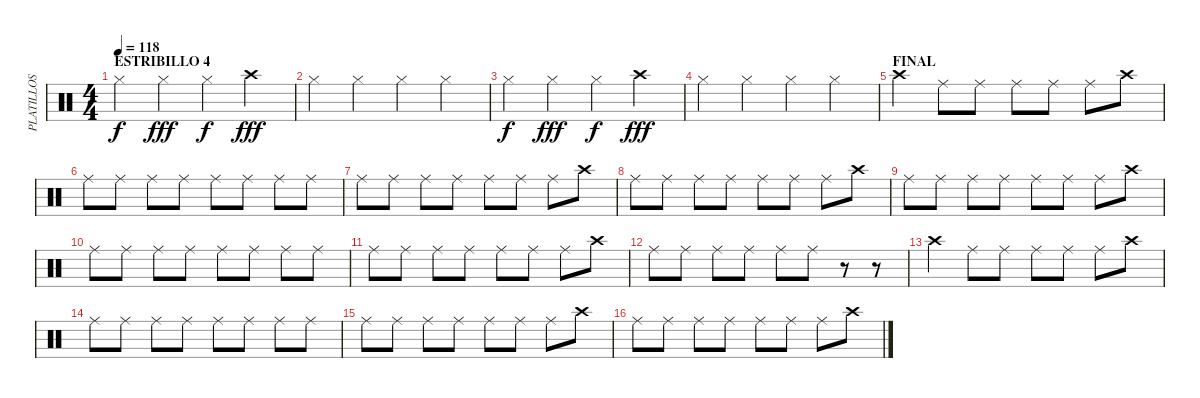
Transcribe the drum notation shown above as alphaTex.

\track ("PLATILLOS" "PLATILLOS") {instrument percussion}
\staff {score}
\articulation defaults
\ts (4 4)
\section ("" "ESTRIBILLO 4")
\tempo 118
\clef neutral
\ks c "Hi-Hat (closed)".4{dy f} "Hi-Hat (closed)".4{dy fff} "Hi-Hat (closed)".4{dy f} "Crash high (hit)".4{dy fff}
|
"Hi-Hat (closed)".4 "Hi-Hat (closed)".4 "Hi-Hat (closed)".4 "Hi-Hat (closed)".4 |
"Hi-Hat (closed)".4{dy f} "Hi-Hat (closed)".4{dy fff} "Hi-Hat (closed)".4{dy f} "Crash high (hit)".4{dy fff} |
"Hi-Hat (closed)".4 "Hi-Hat (closed)".4 "Hi-Hat (closed)".4 "Hi-Hat (closed)".4 |
\section ("" "FINAL")
"Crash high (hit)".4 "Ride (middle)".8 "Ride (middle)".8 "Ride (middle)".8 "Ride (middle)".8 "Ride (middle)".8 "Crash high (hit)".8 |
"Ride (middle)".8 "Ride (middle)".8 "Ride (middle)".8 "Ride (middle)".8 "Ride (middle)".8 "Ride (middle)".8 "Ride (middle)".8 "Ride (middle)".8 |
"Ride (middle)".8 "Ride (middle)".8 "Ride (middle)".8 "Ride (middle)".8 "Ride (middle)".8 "Ride (middle)".8 "Ride (middle)".8 "Crash high (hit)".8 |
"Ride (middle)".8 "Ride (middle)".8 "Ride (middle)".8 "Ride (middle)".8 "Ride (middle)".8 "Ride (middle)".8 "Ride (middle)".8 "Crash high (hit)".8 |
"Ride (middle)".8 "Ride (middle)".8 "Ride (middle)".8 "Ride (middle)".8 "Ride (middle)".8 "Ride (middle)".8 "Ride (middle)".8 "Crash high (hit)".8 |
"Ride (middle)".8 "Ride (middle)".8 "Ride (middle)".8 "Ride (middle)".8 "Ride (middle)".8 "Ride (middle)".8 "Ride (middle)".8 "Ride (middle)".8 |
"Ride (middle)".8 "Ride (middle)".8 "Ride (middle)".8 "Ride (middle)".8 "Ride (middle)".8 "Ride (middle)".8 "Ride (middle)".8 "Crash high (hit)".8 |
"Ride (middle)".8 "Ride (middle)".8 "Ride (middle)".8 "Ride (middle)".8 "Ride (middle)".8 "Ride (middle)".8 r.8 r.8 |
"Crash high (hit)".4 "Ride (middle)".8 "Ride (middle)".8 "Ride (middle)".8 "Ride (middle)".8 "Ride (middle)".8 "Crash high (hit)".8 |
"Ride (middle)".8 "Ride (middle)".8 "Ride (middle)".8 "Ride (middle)".8 "Ride (middle)".8 "Ride (middle)".8 "Ride (middle)".8 "Ride (middle)".8 |
"Ride (middle)".8 "Ride (middle)".8 "Ride (middle)".8 "Ride (middle)".8 "Ride (middle)".8 "Ride (middle)".8 "Ride (middle)".8 "Crash high (hit)".8 |
"Ride (middle)".8 "Ride (middle)".8 "Ride (middle)".8 "Ride (middle)".8 "Ride (middle)".8 "Ride (middle)".8 "Ride (middle)".8 "Crash high (hit)".8
